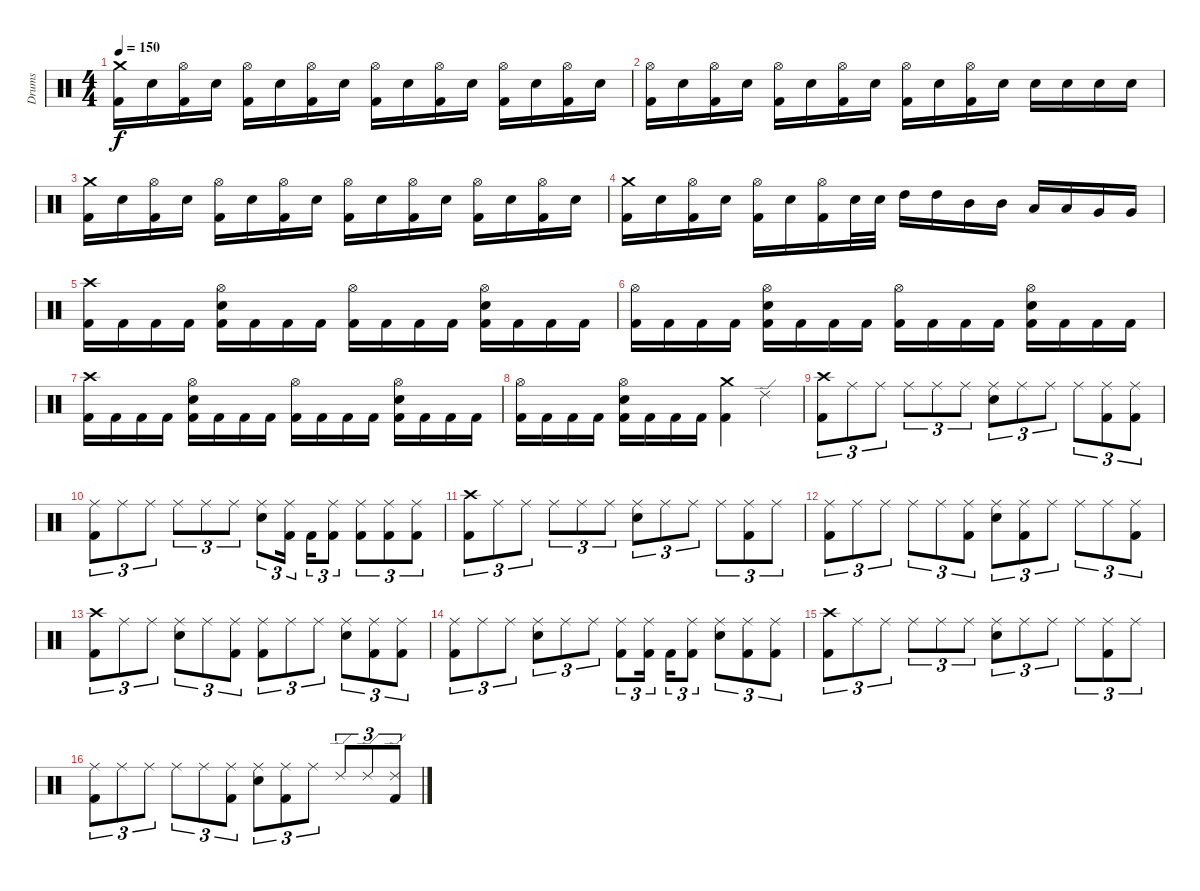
\track ("Drums" "Drums") {instrument percussion}
\staff {score}
\articulation defaults
\ts (4 4)
\tempo 150
\clef neutral
\ks c
("Kick (hit) 2" "Crash medium (hit)").16{dy f} "Electric Snare (hit)".16 ("Kick (hit) 2" "Hi-Hat (open)").16 "Electric Snare (hit)".16 ("Kick (hit) 2" "Hi-Hat (open)").16 "Electric Snare (hit)".16 ("Kick (hit) 2" "Hi-Hat (open)").16 "Electric Snare (hit)".16 ("Kick (hit) 2" "Hi-Hat (open)").16 "Electric Snare (hit)".16 ("Kick (hit) 2" "Hi-Hat (open)").16 "Electric Snare (hit)".16 ("Kick (hit) 2" "Hi-Hat (open)").16 "Electric Snare (hit)".16 ("Kick (hit) 2" "Hi-Hat (open)").16 "Electric Snare (hit)".16 |
("Kick (hit) 2" "Hi-Hat (open)").16 "Electric Snare (hit)".16 ("Kick (hit) 2" "Hi-Hat (open)").16 "Electric Snare (hit)".16 ("Kick (hit) 2" "Hi-Hat (open)").16 "Electric Snare (hit)".16 ("Kick (hit) 2" "Hi-Hat (open)").16 "Electric Snare (hit)".16 ("Kick (hit) 2" "Hi-Hat (open)").16 "Electric Snare (hit)".16 ("Kick (hit) 2" "Hi-Hat (open)").16 "Electric Snare (hit)".16 "Electric Snare (hit)".16 "Electric Snare (hit)".16 "Electric Snare (hit)".16 "Electric Snare (hit)".16 |
("Kick (hit) 2" "Crash medium (hit)").16 "Electric Snare (hit)".16 ("Kick (hit) 2" "Hi-Hat (open)").16 "Electric Snare (hit)".16 ("Kick (hit) 2" "Hi-Hat (open)").16 "Electric Snare (hit)".16 ("Kick (hit) 2" "Hi-Hat (open)").16 "Electric Snare (hit)".16 ("Kick (hit) 2" "Hi-Hat (open)").16 "Electric Snare (hit)".16 ("Kick (hit) 2" "Hi-Hat (open)").16 "Electric Snare (hit)".16 ("Kick (hit) 2" "Hi-Hat (open)").16 "Electric Snare (hit)".16 ("Kick (hit) 2" "Hi-Hat (open)").16 "Electric Snare (hit)".16 |
("Kick (hit) 2" "Crash medium (hit)").16 "Electric Snare (hit)".16 ("Kick (hit) 2" "Hi-Hat (open)").16 "Electric Snare (hit)".16 ("Kick (hit) 2" "Hi-Hat (open)").16 "Electric Snare (hit)".16 ("Kick (hit) 2" "Hi-Hat (open)").16 "Electric Snare (hit)".32 "Electric Snare (hit)".32 "High Tom (hit)".16 "High Tom (hit)".16 "Mid Tom (hit)".16 "Mid Tom (hit)".16 "Low Tom (hit)".16 "Low Tom (hit)".16 "Very Low Tom (hit)".16 "Very Low Tom (hit)".16 |
("Kick (hit) 2" "Crash high (hit)").16 "Kick (hit) 2".16 "Kick (hit) 2".16 "Kick (hit) 2".16 ("Kick (hit) 2" "Electric Snare (hit)" "Hi-Hat (open)").16 "Kick (hit) 2".16 "Kick (hit) 2".16 "Kick (hit) 2".16 ("Kick (hit) 2" "Hi-Hat (open)").16 "Kick (hit) 2".16 "Kick (hit) 2".16 "Kick (hit) 2".16 ("Kick (hit) 2" "Electric Snare (hit)" "Hi-Hat (open)").16 "Kick (hit) 2".16 "Kick (hit) 2".16 "Kick (hit) 2".16 |
("Kick (hit) 2" "Hi-Hat (open)").16 "Kick (hit) 2".16 "Kick (hit) 2".16 "Kick (hit) 2".16 ("Kick (hit) 2" "Electric Snare (hit)" "Hi-Hat (open)").16 "Kick (hit) 2".16 "Kick (hit) 2".16 "Kick (hit) 2".16 ("Kick (hit) 2" "Hi-Hat (open)").16 "Kick (hit) 2".16 "Kick (hit) 2".16 "Kick (hit) 2".16 ("Kick (hit) 2" "Electric Snare (hit)" "Hi-Hat (open)").16 "Kick (hit) 2".16 "Kick (hit) 2".16 "Kick (hit) 2".16 |
("Kick (hit) 2" "Crash high (hit)").16 "Kick (hit) 2".16 "Kick (hit) 2".16 "Kick (hit) 2".16 ("Kick (hit) 2" "Electric Snare (hit)" "Hi-Hat (open)").16 "Kick (hit) 2".16 "Kick (hit) 2".16 "Kick (hit) 2".16 ("Kick (hit) 2" "Hi-Hat (open)").16 "Kick (hit) 2".16 "Kick (hit) 2".16 "Kick (hit) 2".16 ("Kick (hit) 2" "Electric Snare (hit)" "Hi-Hat (open)").16 "Kick (hit) 2".16 "Kick (hit) 2".16 "Kick (hit) 2".16 |
("Kick (hit) 2" "Hi-Hat (open)").16 "Kick (hit) 2".16 "Kick (hit) 2".16 "Kick (hit) 2".16 ("Kick (hit) 2" "Electric Snare (hit)" "Hi-Hat (open)").16 "Kick (hit) 2".16 "Kick (hit) 2".16 "Kick (hit) 2".16 ("Kick (hit) 2" "Crash medium (hit)").4 "Ride (edge) 2".4 |
("Kick (hit) 2" "Crash high (hit)").8{tu (3 2)} "Ride (middle)".8{tu (3 2)} "Ride (middle)".8{tu (3 2)} "Ride (middle)".8{tu (3 2)} "Ride (middle)".8{tu (3 2)} "Ride (middle)".8{tu (3 2)} ("Electric Snare (hit)" "Ride (middle)").8{tu (3 2)} "Ride (middle)".8{tu (3 2)} "Ride (middle)".8{tu (3 2)} "Ride (middle)".8{tu (3 2)} ("Kick (hit) 2" "Ride (middle)").8{tu (3 2)} ("Kick (hit) 2" "Ride (middle)").8{tu (3 2)} |
("Kick (hit) 2" "Ride (middle)").8{tu (3 2)} "Ride (middle)".8{tu (3 2)} "Ride (middle)".8{tu (3 2)} "Ride (middle)".8{tu (3 2)} "Ride (middle)".8{tu (3 2)} "Ride (middle)".8{tu (3 2)} ("Electric Snare (hit)" "Ride (middle)").8{tu (3 2)} ("Kick (hit) 2" "Ride (middle)").16{tu (3 2)} "Kick (hit) 2".16{tu (3 2)} ("Kick (hit) 2" "Ride (middle)").8{tu (3 2)} ("Kick (hit) 2" "Ride (middle)").8{tu (3 2)} ("Kick (hit) 2" "Ride (middle)").8{tu (3 2)} ("Kick (hit) 2" "Ride (middle)").8{tu (3 2)} |
("Kick (hit) 2" "Crash high (hit)").8{tu (3 2)} "Ride (middle)".8{tu (3 2)} "Ride (middle)".8{tu (3 2)} "Ride (middle)".8{tu (3 2)} "Ride (middle)".8{tu (3 2)} "Ride (middle)".8{tu (3 2)} ("Electric Snare (hit)" "Ride (middle)").8{tu (3 2)} "Ride (middle)".8{tu (3 2)} "Ride (middle)".8{tu (3 2)} "Ride (middle)".8{tu (3 2)} ("Kick (hit) 2" "Ride (middle)").8{tu (3 2)} "Ride (middle)".8{tu (3 2)} |
("Kick (hit) 2" "Ride (middle)").8{tu (3 2)} "Ride (middle)".8{tu (3 2)} "Ride (middle)".8{tu (3 2)} "Ride (middle)".8{tu (3 2)} "Ride (middle)".8{tu (3 2)} ("Kick (hit) 2" "Ride (middle)").8{tu (3 2)} ("Electric Snare (hit)" "Ride (middle)").8{tu (3 2)} ("Kick (hit) 2" "Ride (middle)").8{tu (3 2)} "Ride (middle)".8{tu (3 2)} "Ride (middle)".8{tu (3 2)} "Ride (middle)".8{tu (3 2)} ("Kick (hit) 2" "Ride (middle)").8{tu (3 2)} |
("Kick (hit) 2" "Crash high (hit)").8{tu (3 2)} "Ride (middle)".8{tu (3 2)} "Ride (middle)".8{tu (3 2)} ("Electric Snare (hit)" "Ride (middle)").8{tu (3 2)} "Ride (middle)".8{tu (3 2)} ("Kick (hit) 2" "Ride (middle)").8{tu (3 2)} ("Kick (hit) 2" "Ride (middle)").8{tu (3 2)} "Ride (middle)".8{tu (3 2)} "Ride (middle)".8{tu (3 2)} ("Electric Snare (hit)" "Ride (middle)").8{tu (3 2)} ("Kick (hit) 2" "Ride (middle)").8{tu (3 2)} ("Kick (hit) 2" "Ride (middle)").8{tu (3 2)} |
("Kick (hit) 2" "Ride (middle)").8{tu (3 2)} "Ride (middle)".8{tu (3 2)} "Ride (middle)".8{tu (3 2)} ("Electric Snare (hit)" "Ride (middle)").8{tu (3 2)} "Ride (middle)".8{tu (3 2)} "Ride (middle)".8{tu (3 2)} ("Kick (hit) 2" "Ride (middle)").8{tu (3 2)} ("Kick (hit) 2" "Ride (middle)").16{tu (3 2)} "Kick (hit) 2".16{tu (3 2)} ("Kick (hit) 2" "Ride (middle)").8{tu (3 2)} ("Electric Snare (hit)" "Ride (middle)").8{tu (3 2)} ("Kick (hit) 2" "Ride (middle)").8{tu (3 2)} ("Kick (hit) 2" "Ride (middle)").8{tu (3 2)} |
("Kick (hit) 2" "Crash high (hit)").8{tu (3 2)} "Ride (middle)".8{tu (3 2)} "Ride (middle)".8{tu (3 2)} "Ride (middle)".8{tu (3 2)} "Ride (middle)".8{tu (3 2)} "Ride (middle)".8{tu (3 2)} ("Electric Snare (hit)" "Ride (middle)").8{tu (3 2)} "Ride (middle)".8{tu (3 2)} "Ride (middle)".8{tu (3 2)} "Ride (middle)".8{tu (3 2)} ("Kick (hit) 2" "Ride (middle)").8{tu (3 2)} "Ride (middle)".8{tu (3 2)} |
("Kick (hit) 2" "Ride (middle)").8{tu (3 2)} "Ride (middle)".8{tu (3 2)} "Ride (middle)".8{tu (3 2)} "Ride (middle)".8{tu (3 2)} "Ride (middle)".8{tu (3 2)} ("Kick (hit) 2" "Ride (middle)").8{tu (3 2)} ("Electric Snare (hit)" "Ride (middle)").8{tu (3 2)} ("Kick (hit) 2" "Ride (middle)").8{tu (3 2)} "Ride (middle)".8{tu (3 2)} "Ride (edge) 2".8{tu (3 2)} "Ride (edge) 2".8{tu (3 2)} ("Kick (hit) 2" "Ride (edge) 2").8{tu (3 2)}
